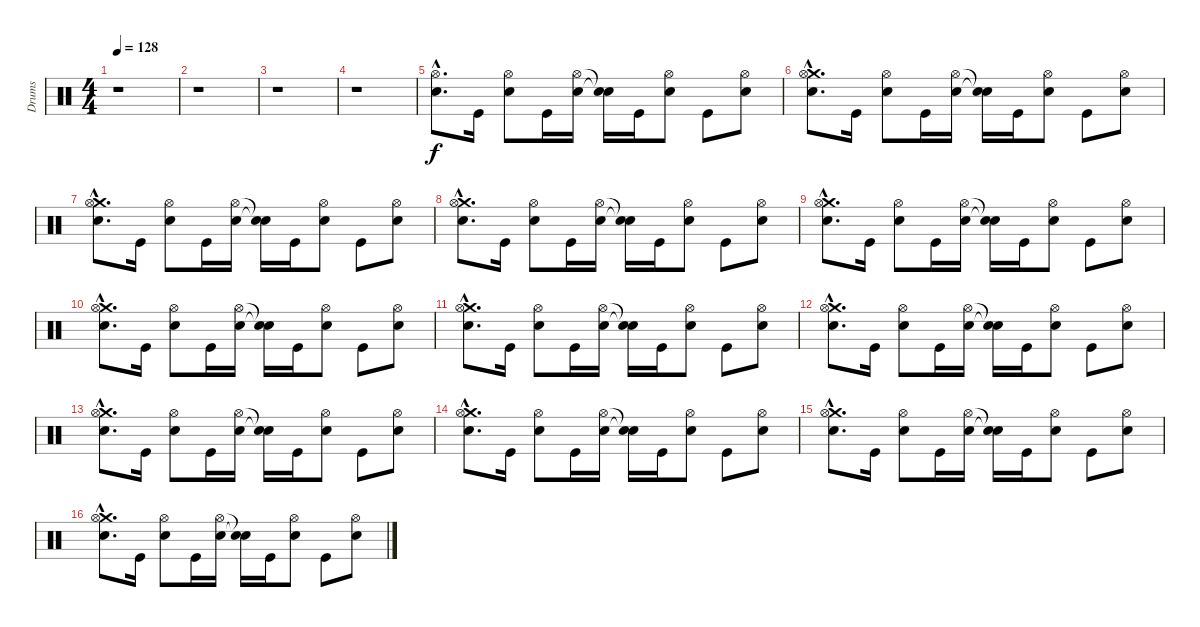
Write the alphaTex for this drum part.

\track ("Drums" "Drums") {instrument percussion}
\staff {score}
\articulation defaults
\ts (4 4)
\tempo 128
\clef neutral
\ks c
r.1{dy f} |
r.1 |
r.1 |
r.1 |
("Hi-Hat (open)"{hac} "Snare (hit) 2"{hac}).8{d} "Kick (hit)".16 ("Hi-Hat (open)" "Snare (hit) 2").8 "Kick (hit)".16 ("Hi-Hat (open)" "Snare (hit) 2").16 ("Snare (hit)"{t} "Snare (hit)"{t}).16 "Kick (hit)".16 ("Hi-Hat (open)" "Snare (hit) 2").8 "Kick (hit)".8 ("Hi-Hat (open)" "Snare (hit) 2").8 |
("Crash medium (hit)"{hac} "Hi-Hat (open)"{hac} "Snare (hit) 2"{hac}).8{d} "Kick (hit)".16 ("Hi-Hat (open)" "Snare (hit) 2").8 "Kick (hit)".16 ("Hi-Hat (open)" "Snare (hit) 2").16 ("Snare (hit)"{t} "Snare (hit)"{t}).16 "Kick (hit)".16 ("Hi-Hat (open)" "Snare (hit) 2").8 "Kick (hit)".8 ("Hi-Hat (open)" "Snare (hit) 2").8 |
("Crash medium (hit)"{hac} "Hi-Hat (open)"{hac} "Snare (hit) 2"{hac}).8{d} "Kick (hit)".16 ("Hi-Hat (open)" "Snare (hit) 2").8 "Kick (hit)".16 ("Hi-Hat (open)" "Snare (hit) 2").16 ("Snare (hit)"{t} "Snare (hit)"{t}).16 "Kick (hit)".16 ("Hi-Hat (open)" "Snare (hit) 2").8 "Kick (hit)".8 ("Hi-Hat (open)" "Snare (hit) 2").8 |
("Crash medium (hit)"{hac} "Hi-Hat (open)"{hac} "Snare (hit) 2"{hac}).8{d} "Kick (hit)".16 ("Hi-Hat (open)" "Snare (hit) 2").8 "Kick (hit)".16 ("Hi-Hat (open)" "Snare (hit) 2").16 ("Snare (hit)"{t} "Snare (hit)"{t}).16 "Kick (hit)".16 ("Hi-Hat (open)" "Snare (hit) 2").8 "Kick (hit)".8 ("Hi-Hat (open)" "Snare (hit) 2").8 |
("Crash medium (hit)"{hac} "Hi-Hat (open)"{hac} "Snare (hit) 2"{hac}).8{d} "Kick (hit)".16 ("Hi-Hat (open)" "Snare (hit) 2").8 "Kick (hit)".16 ("Hi-Hat (open)" "Snare (hit) 2").16 ("Snare (hit)"{t} "Snare (hit)"{t}).16 "Kick (hit)".16 ("Hi-Hat (open)" "Snare (hit) 2").8 "Kick (hit)".8 ("Hi-Hat (open)" "Snare (hit) 2").8 |
("Crash medium (hit)"{hac} "Hi-Hat (open)"{hac} "Snare (hit) 2"{hac}).8{d} "Kick (hit)".16 ("Hi-Hat (open)" "Snare (hit) 2").8 "Kick (hit)".16 ("Hi-Hat (open)" "Snare (hit) 2").16 ("Snare (hit)"{t} "Snare (hit)"{t}).16 "Kick (hit)".16 ("Hi-Hat (open)" "Snare (hit) 2").8 "Kick (hit)".8 ("Hi-Hat (open)" "Snare (hit) 2").8 |
("Crash medium (hit)"{hac} "Hi-Hat (open)"{hac} "Snare (hit) 2"{hac}).8{d} "Kick (hit)".16 ("Hi-Hat (open)" "Snare (hit) 2").8 "Kick (hit)".16 ("Hi-Hat (open)" "Snare (hit) 2").16 ("Snare (hit)"{t} "Snare (hit)"{t}).16 "Kick (hit)".16 ("Hi-Hat (open)" "Snare (hit) 2").8 "Kick (hit)".8 ("Hi-Hat (open)" "Snare (hit) 2").8 |
("Crash medium (hit)"{hac} "Hi-Hat (open)"{hac} "Snare (hit) 2"{hac}).8{d} "Kick (hit)".16 ("Hi-Hat (open)" "Snare (hit) 2").8 "Kick (hit)".16 ("Hi-Hat (open)" "Snare (hit) 2").16 ("Snare (hit)"{t} "Snare (hit)"{t}).16 "Kick (hit)".16 ("Hi-Hat (open)" "Snare (hit) 2").8 "Kick (hit)".8 ("Hi-Hat (open)" "Snare (hit) 2").8 |
("Crash medium (hit)"{hac} "Hi-Hat (open)"{hac} "Snare (hit) 2"{hac}).8{d} "Kick (hit)".16 ("Hi-Hat (open)" "Snare (hit) 2").8 "Kick (hit)".16 ("Hi-Hat (open)" "Snare (hit) 2").16 ("Snare (hit)"{t} "Snare (hit)"{t}).16 "Kick (hit)".16 ("Hi-Hat (open)" "Snare (hit) 2").8 "Kick (hit)".8 ("Hi-Hat (open)" "Snare (hit) 2").8 |
("Crash medium (hit)"{hac} "Hi-Hat (open)"{hac} "Snare (hit) 2"{hac}).8{d} "Kick (hit)".16 ("Hi-Hat (open)" "Snare (hit) 2").8 "Kick (hit)".16 ("Hi-Hat (open)" "Snare (hit) 2").16 ("Snare (hit)"{t} "Snare (hit)"{t}).16 "Kick (hit)".16 ("Hi-Hat (open)" "Snare (hit) 2").8 "Kick (hit)".8 ("Hi-Hat (open)" "Snare (hit) 2").8 |
("Crash medium (hit)"{hac} "Hi-Hat (open)"{hac} "Snare (hit) 2"{hac}).8{d} "Kick (hit)".16 ("Hi-Hat (open)" "Snare (hit) 2").8 "Kick (hit)".16 ("Hi-Hat (open)" "Snare (hit) 2").16 ("Snare (hit)"{t} "Snare (hit)"{t}).16 "Kick (hit)".16 ("Hi-Hat (open)" "Snare (hit) 2").8 "Kick (hit)".8 ("Hi-Hat (open)" "Snare (hit) 2").8 |
("Crash medium (hit)"{hac} "Hi-Hat (open)"{hac} "Snare (hit) 2"{hac}).8{d} "Kick (hit)".16 ("Hi-Hat (open)" "Snare (hit) 2").8 "Kick (hit)".16 ("Hi-Hat (open)" "Snare (hit) 2").16 ("Snare (hit)"{t} "Snare (hit)"{t}).16 "Kick (hit)".16 ("Hi-Hat (open)" "Snare (hit) 2").8 "Kick (hit)".8 ("Hi-Hat (open)" "Snare (hit) 2").8
